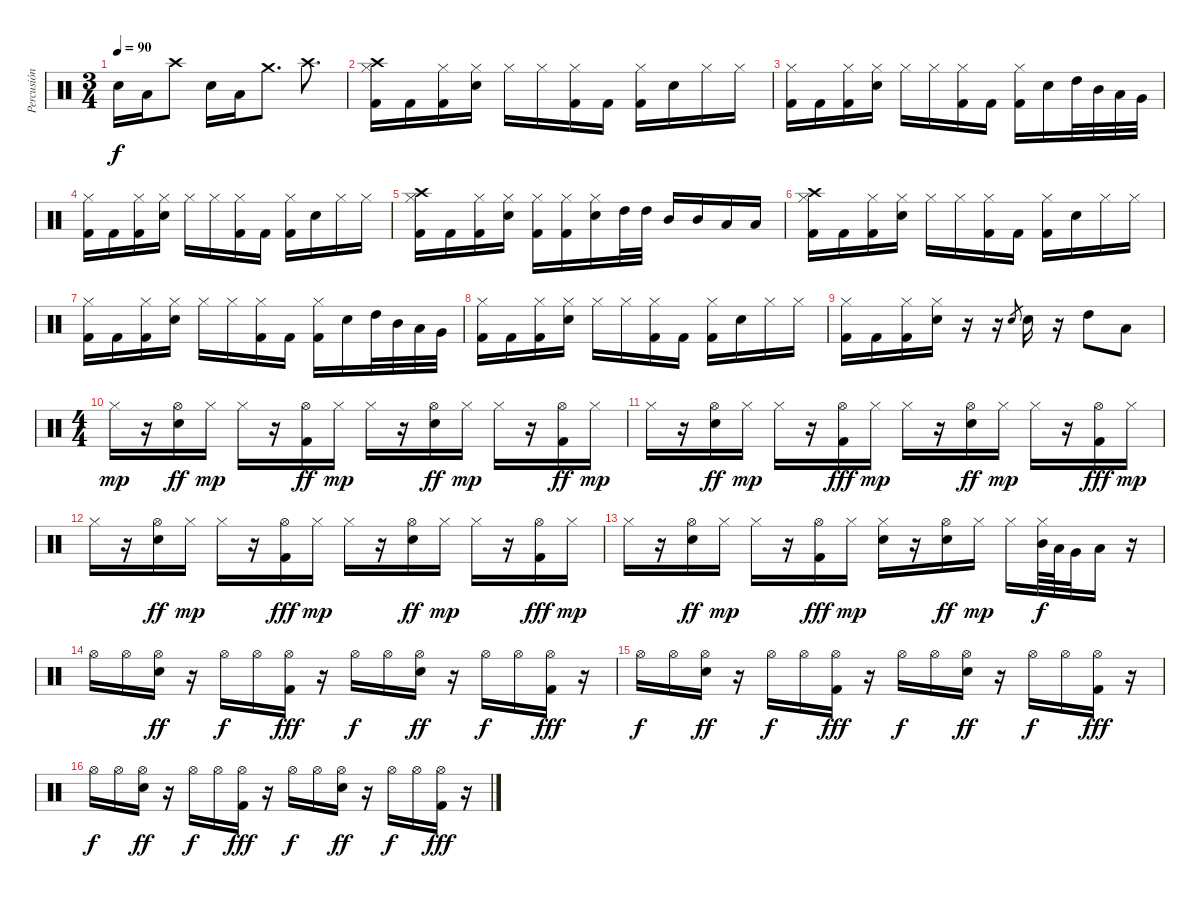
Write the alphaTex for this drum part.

\track ("Percusión" "Percusión") {instrument percussion}
\staff {score}
\articulation defaults
\ts (3 4)
\tempo 90
\clef neutral
\ks c "Electric Snare (hit)".16{dy f} "Low Tom (hit)".16 "Crash high (hit)".8 "Electric Snare (hit)".16 "Low Tom (hit)".16 "Crash medium (hit)".8{d} "Crash high (hit)".8{d}
|
("Crash high (hit)" "Hi-Hat (closed)" "Kick (hit) 2").16 "Kick (hit) 2".16 ("Hi-Hat (closed)" "Kick (hit) 2").16 ("Hi-Hat (closed)" "Electric Snare (hit)").16 "Hi-Hat (closed)".16 "Hi-Hat (closed)".16 ("Hi-Hat (closed)" "Kick (hit) 2").16 "Kick (hit) 2".16 ("Hi-Hat (closed)" "Kick (hit) 2").16 "Electric Snare (hit)".16 "Hi-Hat (closed)".16 "Hi-Hat (closed)".16 |
("Hi-Hat (closed)" "Kick (hit) 2").16 "Kick (hit) 2".16 ("Hi-Hat (closed)" "Kick (hit) 2").16 ("Hi-Hat (closed)" "Electric Snare (hit)").16 "Hi-Hat (closed)".16 "Hi-Hat (closed)".16 ("Hi-Hat (closed)" "Kick (hit) 2").16 "Kick (hit) 2".16 ("Hi-Hat (closed)" "Kick (hit) 2").16 "Electric Snare (hit)".16 "High Tom (hit)".32 "Mid Tom (hit)".32 "Low Tom (hit)".32 "Very Low Tom (hit)".32 |
("Hi-Hat (closed)" "Kick (hit) 2").16 "Kick (hit) 2".16 ("Hi-Hat (closed)" "Kick (hit) 2").16 ("Hi-Hat (closed)" "Electric Snare (hit)").16 "Hi-Hat (closed)".16 "Hi-Hat (closed)".16 ("Hi-Hat (closed)" "Kick (hit) 2").16 "Kick (hit) 2".16 ("Hi-Hat (closed)" "Kick (hit) 2").16 "Electric Snare (hit)".16 "Hi-Hat (closed)".16 "Hi-Hat (closed)".16 |
("Crash high (hit)" "Hi-Hat (closed)" "Kick (hit) 2").16 "Kick (hit) 2".16 ("Hi-Hat (closed)" "Kick (hit) 2").16 ("Hi-Hat (closed)" "Electric Snare (hit)").16 ("Hi-Hat (closed)" "Kick (hit) 2").16 ("Hi-Hat (closed)" "Kick (hit) 2").16 ("Hi-Hat (closed)" "Electric Snare (hit)").16 "High Tom (hit)".32 "High Tom (hit)".32 "Mid Tom (hit)".16 "Mid Tom (hit)".16 "Low Tom (hit)".16 "Low Tom (hit)".16 |
("Crash high (hit)" "Hi-Hat (closed)" "Kick (hit) 2").16 "Kick (hit) 2".16 ("Hi-Hat (closed)" "Kick (hit) 2").16 ("Hi-Hat (closed)" "Electric Snare (hit)").16 "Hi-Hat (closed)".16 "Hi-Hat (closed)".16 ("Hi-Hat (closed)" "Kick (hit) 2").16 "Kick (hit) 2".16 ("Hi-Hat (closed)" "Kick (hit) 2").16 "Electric Snare (hit)".16 "Hi-Hat (closed)".16 "Hi-Hat (closed)".16 |
("Hi-Hat (closed)" "Kick (hit) 2").16 "Kick (hit) 2".16 ("Hi-Hat (closed)" "Kick (hit) 2").16 ("Hi-Hat (closed)" "Electric Snare (hit)").16 "Hi-Hat (closed)".16 "Hi-Hat (closed)".16 ("Hi-Hat (closed)" "Kick (hit) 2").16 "Kick (hit) 2".16 ("Hi-Hat (closed)" "Kick (hit) 2").16 "Electric Snare (hit)".16 "High Tom (hit)".32 "Mid Tom (hit)".32 "Low Tom (hit)".32 "Very Low Tom (hit)".32 |
("Hi-Hat (closed)" "Kick (hit) 2").16 "Kick (hit) 2".16 ("Hi-Hat (closed)" "Kick (hit) 2").16 ("Hi-Hat (closed)" "Electric Snare (hit)").16 "Hi-Hat (closed)".16 "Hi-Hat (closed)".16 ("Hi-Hat (closed)" "Kick (hit) 2").16 "Kick (hit) 2".16 ("Hi-Hat (closed)" "Kick (hit) 2").16 "Electric Snare (hit)".16 "Hi-Hat (closed)".16 "Hi-Hat (closed)".16 |
("Hi-Hat (closed)" "Kick (hit) 2").16 "Kick (hit) 2".16 ("Hi-Hat (closed)" "Kick (hit) 2").16 ("Hi-Hat (closed)" "Electric Snare (hit)").16 r.16 r.16 "Electric Snare (hit)"{h}.8{gr} "Electric Snare (hit)".16 r.16 "High Tom (hit)".8 "Low Tom (hit)".8 |
\ts (4 4)
"Hi-Hat (closed)".16{dy mp} r.16 ("Hi-Hat (open)" "Electric Snare (hit)").16{dy ff} "Hi-Hat (closed)".16{dy mp} "Hi-Hat (closed)".16 r.16 ("Hi-Hat (open)" "Kick (hit) 2").16{dy ff} "Hi-Hat (closed)".16{dy mp} "Hi-Hat (closed)".16 r.16 ("Hi-Hat (open)" "Electric Snare (hit)").16{dy ff} "Hi-Hat (closed)".16{dy mp} "Hi-Hat (closed)".16 r.16 ("Hi-Hat (open)" "Kick (hit) 2").16{dy ff} "Hi-Hat (closed)".16{dy mp} |
"Hi-Hat (closed)".16 r.16 ("Hi-Hat (open)" "Electric Snare (hit)").16{dy ff} "Hi-Hat (closed)".16{dy mp} "Hi-Hat (closed)".16 r.16 ("Hi-Hat (open)" "Kick (hit) 2").16{dy fff} "Hi-Hat (closed)".16{dy mp} "Hi-Hat (closed)".16 r.16 ("Hi-Hat (open)" "Electric Snare (hit)").16{dy ff} "Hi-Hat (closed)".16{dy mp} "Hi-Hat (closed)".16 r.16 ("Hi-Hat (open)" "Kick (hit) 2").16{dy fff} "Hi-Hat (closed)".16{dy mp} |
"Hi-Hat (closed)".16 r.16 ("Hi-Hat (open)" "Electric Snare (hit)").16{dy ff} "Hi-Hat (closed)".16{dy mp} "Hi-Hat (closed)".16 r.16 ("Hi-Hat (open)" "Kick (hit) 2").16{dy fff} "Hi-Hat (closed)".16{dy mp} "Hi-Hat (closed)".16 r.16 ("Hi-Hat (open)" "Electric Snare (hit)").16{dy ff} "Hi-Hat (closed)".16{dy mp} "Hi-Hat (closed)".16 r.16 ("Hi-Hat (open)" "Kick (hit) 2").16{dy fff} "Hi-Hat (closed)".16{dy mp} |
"Hi-Hat (closed)".16 r.16 ("Hi-Hat (open)" "Electric Snare (hit)").16{dy ff} "Hi-Hat (closed)".16{dy mp} "Hi-Hat (closed)".16 r.16 ("Hi-Hat (open)" "Kick (hit) 2").16{dy fff} "Hi-Hat (closed)".16{dy mp} ("Hi-Hat (closed)" "Electric Snare (hit)").16 r.16 ("Hi-Hat (open)" "Electric Snare (hit)").16{dy ff} "Hi-Hat (closed)".16{dy mp} "Hi-Hat (closed)".16 ("Hi-Hat (closed)" "Mid Tom (hit)").64{dy f} "Low Tom (hit)".64 "Very Low Tom (hit)".32 "Low Floor Tom (hit)".16 r.16 |
"Hi-Hat (open)".16 "Hi-Hat (open)".16 ("Hi-Hat (open)" "Electric Snare (hit)").16{dy ff} r.16 "Hi-Hat (open)".16{dy f} "Hi-Hat (open)".16 ("Hi-Hat (open)" "Kick (hit) 2").16{dy fff} r.16 "Hi-Hat (open)".16{dy f} "Hi-Hat (open)".16 ("Hi-Hat (open)" "Electric Snare (hit)").16{dy ff} r.16 "Hi-Hat (open)".16{dy f} "Hi-Hat (open)".16 ("Hi-Hat (open)" "Kick (hit) 2").16{dy fff} r.16 |
"Hi-Hat (open)".16{dy f} "Hi-Hat (open)".16 ("Hi-Hat (open)" "Electric Snare (hit)").16{dy ff} r.16 "Hi-Hat (open)".16{dy f} "Hi-Hat (open)".16 ("Hi-Hat (open)" "Kick (hit) 2").16{dy fff} r.16 "Hi-Hat (open)".16{dy f} "Hi-Hat (open)".16 ("Hi-Hat (open)" "Electric Snare (hit)").16{dy ff} r.16 "Hi-Hat (open)".16{dy f} "Hi-Hat (open)".16 ("Hi-Hat (open)" "Kick (hit) 2").16{dy fff} r.16 |
"Hi-Hat (open)".16{dy f} "Hi-Hat (open)".16 ("Hi-Hat (open)" "Electric Snare (hit)").16{dy ff} r.16 "Hi-Hat (open)".16{dy f} "Hi-Hat (open)".16 ("Hi-Hat (open)" "Kick (hit) 2").16{dy fff} r.16 "Hi-Hat (open)".16{dy f} "Hi-Hat (open)".16 ("Hi-Hat (open)" "Electric Snare (hit)").16{dy ff} r.16 "Hi-Hat (open)".16{dy f} "Hi-Hat (open)".16 ("Hi-Hat (open)" "Kick (hit) 2").16{dy fff} r.16
